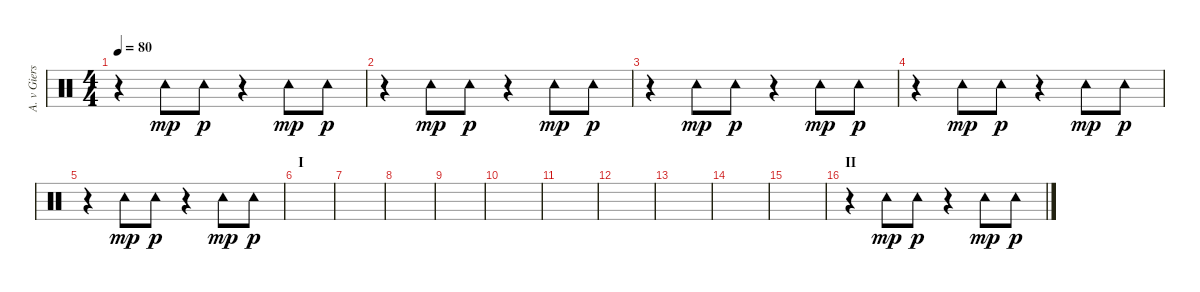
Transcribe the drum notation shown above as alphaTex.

\track ("A. v Giersbergen (tambourine)" "A. v Giers") {instrument percussion}
\staff {score}
\articulation defaults
\ts (4 4)
\tempo 80
\clef neutral
\ks c
r.4{dy p} "Tambourine (hit)".8{dy mp} "Tambourine (hit)".8{dy p} r.4 "Tambourine (hit)".8{dy mp} "Tambourine (hit)".8{dy p} |
r.4 "Tambourine (hit)".8{dy mp} "Tambourine (hit)".8{dy p} r.4 "Tambourine (hit)".8{dy mp} "Tambourine (hit)".8{dy p} |
r.4 "Tambourine (hit)".8{dy mp} "Tambourine (hit)".8{dy p} r.4 "Tambourine (hit)".8{dy mp} "Tambourine (hit)".8{dy p} |
r.4 "Tambourine (hit)".8{dy mp} "Tambourine (hit)".8{dy p} r.4 "Tambourine (hit)".8{dy mp} "Tambourine (hit)".8{dy p} |
r.4 "Tambourine (hit)".8{dy mp} "Tambourine (hit)".8{dy p} r.4 "Tambourine (hit)".8{dy mp} "Tambourine (hit)".8{dy p} |
\section ("" "I")
|
|
|
|
|
|
|
|
|
|
\section ("" "II")
r.4 "Tambourine (hit)".8{dy mp} "Tambourine (hit)".8{dy p} r.4 "Tambourine (hit)".8{dy mp} "Tambourine (hit)".8{dy p}
